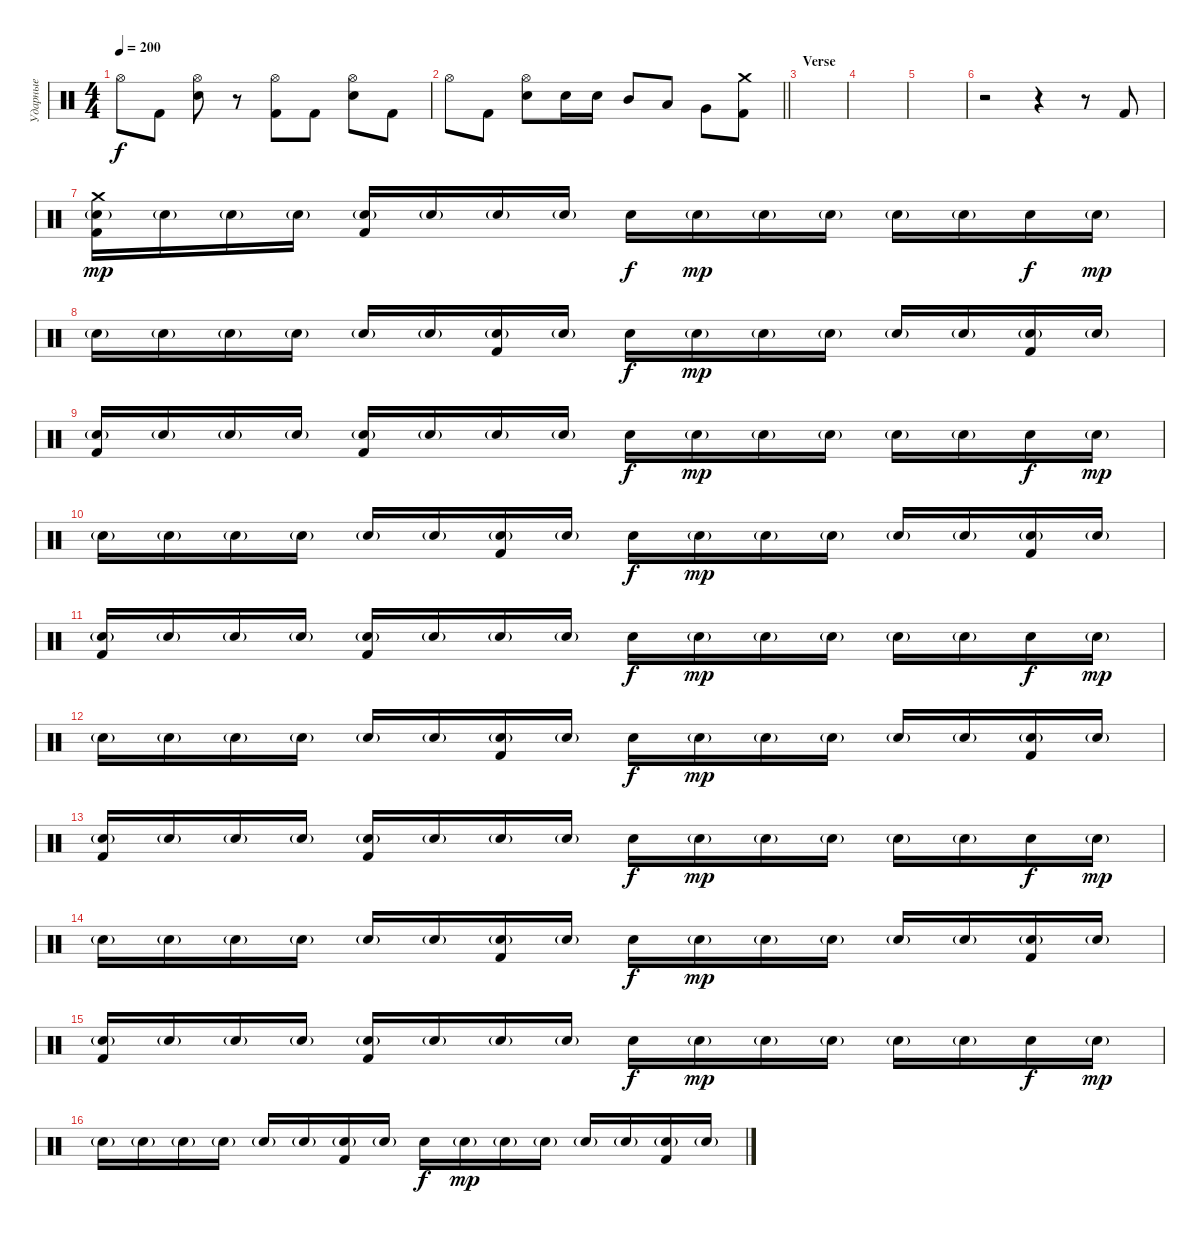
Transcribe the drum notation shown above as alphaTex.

\track ("Ударные" "Ударные") {instrument percussion}
\staff {score}
\articulation defaults
\ts (4 4)
\tempo 200
\clef neutral
\ks c "Hi-Hat (open)".8{dy f} "Kick (hit) 2".8
("Hi-Hat (open)" "Electric Snare (hit)").8 r.8 ("Hi-Hat (open)" "Kick (hit) 2").8 "Kick (hit) 2".8 ("Hi-Hat (open)" "Electric Snare (hit)").8 "Kick (hit) 2".8 |
\barLineRight lightlight "Hi-Hat (open)".8 "Kick (hit) 2".8
("Hi-Hat (open)" "Electric Snare (hit)").8 "Electric Snare (hit)".16 "Electric Snare (hit)".16 "Mid Tom (hit)".8 "Low Tom (hit)".8 "Very Low Tom (hit)".8 ("Crash medium (hit)" "Kick (hit) 2").8 |
\section ("" "Verse")
|
|
|
r.2 r.4 r.8 "Kick (hit) 2".8 |
("Crash medium (hit)" "Electric Snare (hit)"{g} "Kick (hit) 2").16{dy mp} "Electric Snare (hit)"{g}.16 "Electric Snare (hit)"{g}.16 "Electric Snare (hit)"{g}.16 ("Electric Snare (hit)"{g} "Kick (hit) 2").16 "Electric Snare (hit)"{g}.16 "Electric Snare (hit)"{g}.16 "Electric Snare (hit)"{g}.16 "Electric Snare (hit)".16{dy f} "Electric Snare (hit)"{g}.16{dy mp} "Electric Snare (hit)"{g}.16 "Electric Snare (hit)"{g}.16 "Electric Snare (hit)"{g}.16 "Electric Snare (hit)"{g}.16 "Electric Snare (hit)".16{dy f} "Electric Snare (hit)"{g}.16{dy mp} |
"Electric Snare (hit)"{g}.16 "Electric Snare (hit)"{g}.16 "Electric Snare (hit)"{g}.16 "Electric Snare (hit)"{g}.16 "Electric Snare (hit)"{g}.16 "Electric Snare (hit)"{g}.16 ("Electric Snare (hit)"{g} "Kick (hit) 2").16 "Electric Snare (hit)"{g}.16 "Electric Snare (hit)".16{dy f} "Electric Snare (hit)"{g}.16{dy mp} "Electric Snare (hit)"{g}.16 "Electric Snare (hit)"{g}.16 "Electric Snare (hit)"{g}.16 "Electric Snare (hit)"{g}.16 ("Electric Snare (hit)"{g} "Kick (hit) 2").16 "Electric Snare (hit)"{g}.16 |
("Electric Snare (hit)"{g} "Kick (hit) 2").16 "Electric Snare (hit)"{g}.16 "Electric Snare (hit)"{g}.16 "Electric Snare (hit)"{g}.16 ("Electric Snare (hit)"{g} "Kick (hit) 2").16 "Electric Snare (hit)"{g}.16 "Electric Snare (hit)"{g}.16 "Electric Snare (hit)"{g}.16 "Electric Snare (hit)".16{dy f} "Electric Snare (hit)"{g}.16{dy mp} "Electric Snare (hit)"{g}.16 "Electric Snare (hit)"{g}.16 "Electric Snare (hit)"{g}.16 "Electric Snare (hit)"{g}.16 "Electric Snare (hit)".16{dy f} "Electric Snare (hit)"{g}.16{dy mp} |
"Electric Snare (hit)"{g}.16 "Electric Snare (hit)"{g}.16 "Electric Snare (hit)"{g}.16 "Electric Snare (hit)"{g}.16 "Electric Snare (hit)"{g}.16 "Electric Snare (hit)"{g}.16 ("Electric Snare (hit)"{g} "Kick (hit) 2").16 "Electric Snare (hit)"{g}.16 "Electric Snare (hit)".16{dy f} "Electric Snare (hit)"{g}.16{dy mp} "Electric Snare (hit)"{g}.16 "Electric Snare (hit)"{g}.16 "Electric Snare (hit)"{g}.16 "Electric Snare (hit)"{g}.16 ("Electric Snare (hit)"{g} "Kick (hit) 2").16 "Electric Snare (hit)"{g}.16 |
("Electric Snare (hit)"{g} "Kick (hit) 2").16 "Electric Snare (hit)"{g}.16 "Electric Snare (hit)"{g}.16 "Electric Snare (hit)"{g}.16 ("Electric Snare (hit)"{g} "Kick (hit) 2").16 "Electric Snare (hit)"{g}.16 "Electric Snare (hit)"{g}.16 "Electric Snare (hit)"{g}.16 "Electric Snare (hit)".16{dy f} "Electric Snare (hit)"{g}.16{dy mp} "Electric Snare (hit)"{g}.16 "Electric Snare (hit)"{g}.16 "Electric Snare (hit)"{g}.16 "Electric Snare (hit)"{g}.16 "Electric Snare (hit)".16{dy f} "Electric Snare (hit)"{g}.16{dy mp} |
"Electric Snare (hit)"{g}.16 "Electric Snare (hit)"{g}.16 "Electric Snare (hit)"{g}.16 "Electric Snare (hit)"{g}.16 "Electric Snare (hit)"{g}.16 "Electric Snare (hit)"{g}.16 ("Electric Snare (hit)"{g} "Kick (hit) 2").16 "Electric Snare (hit)"{g}.16 "Electric Snare (hit)".16{dy f} "Electric Snare (hit)"{g}.16{dy mp} "Electric Snare (hit)"{g}.16 "Electric Snare (hit)"{g}.16 "Electric Snare (hit)"{g}.16 "Electric Snare (hit)"{g}.16 ("Electric Snare (hit)"{g} "Kick (hit) 2").16 "Electric Snare (hit)"{g}.16 |
("Electric Snare (hit)"{g} "Kick (hit) 2").16 "Electric Snare (hit)"{g}.16 "Electric Snare (hit)"{g}.16 "Electric Snare (hit)"{g}.16 ("Electric Snare (hit)"{g} "Kick (hit) 2").16 "Electric Snare (hit)"{g}.16 "Electric Snare (hit)"{g}.16 "Electric Snare (hit)"{g}.16 "Electric Snare (hit)".16{dy f} "Electric Snare (hit)"{g}.16{dy mp} "Electric Snare (hit)"{g}.16 "Electric Snare (hit)"{g}.16 "Electric Snare (hit)"{g}.16 "Electric Snare (hit)"{g}.16 "Electric Snare (hit)".16{dy f} "Electric Snare (hit)"{g}.16{dy mp} |
"Electric Snare (hit)"{g}.16 "Electric Snare (hit)"{g}.16 "Electric Snare (hit)"{g}.16 "Electric Snare (hit)"{g}.16 "Electric Snare (hit)"{g}.16 "Electric Snare (hit)"{g}.16 ("Electric Snare (hit)"{g} "Kick (hit) 2").16 "Electric Snare (hit)"{g}.16 "Electric Snare (hit)".16{dy f} "Electric Snare (hit)"{g}.16{dy mp} "Electric Snare (hit)"{g}.16 "Electric Snare (hit)"{g}.16 "Electric Snare (hit)"{g}.16 "Electric Snare (hit)"{g}.16 ("Electric Snare (hit)"{g} "Kick (hit) 2").16 "Electric Snare (hit)"{g}.16 |
("Electric Snare (hit)"{g} "Kick (hit) 2").16 "Electric Snare (hit)"{g}.16 "Electric Snare (hit)"{g}.16 "Electric Snare (hit)"{g}.16 ("Electric Snare (hit)"{g} "Kick (hit) 2").16 "Electric Snare (hit)"{g}.16 "Electric Snare (hit)"{g}.16 "Electric Snare (hit)"{g}.16 "Electric Snare (hit)".16{dy f} "Electric Snare (hit)"{g}.16{dy mp} "Electric Snare (hit)"{g}.16 "Electric Snare (hit)"{g}.16 "Electric Snare (hit)"{g}.16 "Electric Snare (hit)"{g}.16 "Electric Snare (hit)".16{dy f} "Electric Snare (hit)"{g}.16{dy mp} |
"Electric Snare (hit)"{g}.16 "Electric Snare (hit)"{g}.16 "Electric Snare (hit)"{g}.16 "Electric Snare (hit)"{g}.16 "Electric Snare (hit)"{g}.16 "Electric Snare (hit)"{g}.16 ("Electric Snare (hit)"{g} "Kick (hit) 2").16 "Electric Snare (hit)"{g}.16 "Electric Snare (hit)".16{dy f} "Electric Snare (hit)"{g}.16{dy mp} "Electric Snare (hit)"{g}.16 "Electric Snare (hit)"{g}.16 "Electric Snare (hit)"{g}.16 "Electric Snare (hit)"{g}.16 ("Electric Snare (hit)"{g} "Kick (hit) 2").16 "Electric Snare (hit)"{g}.16
